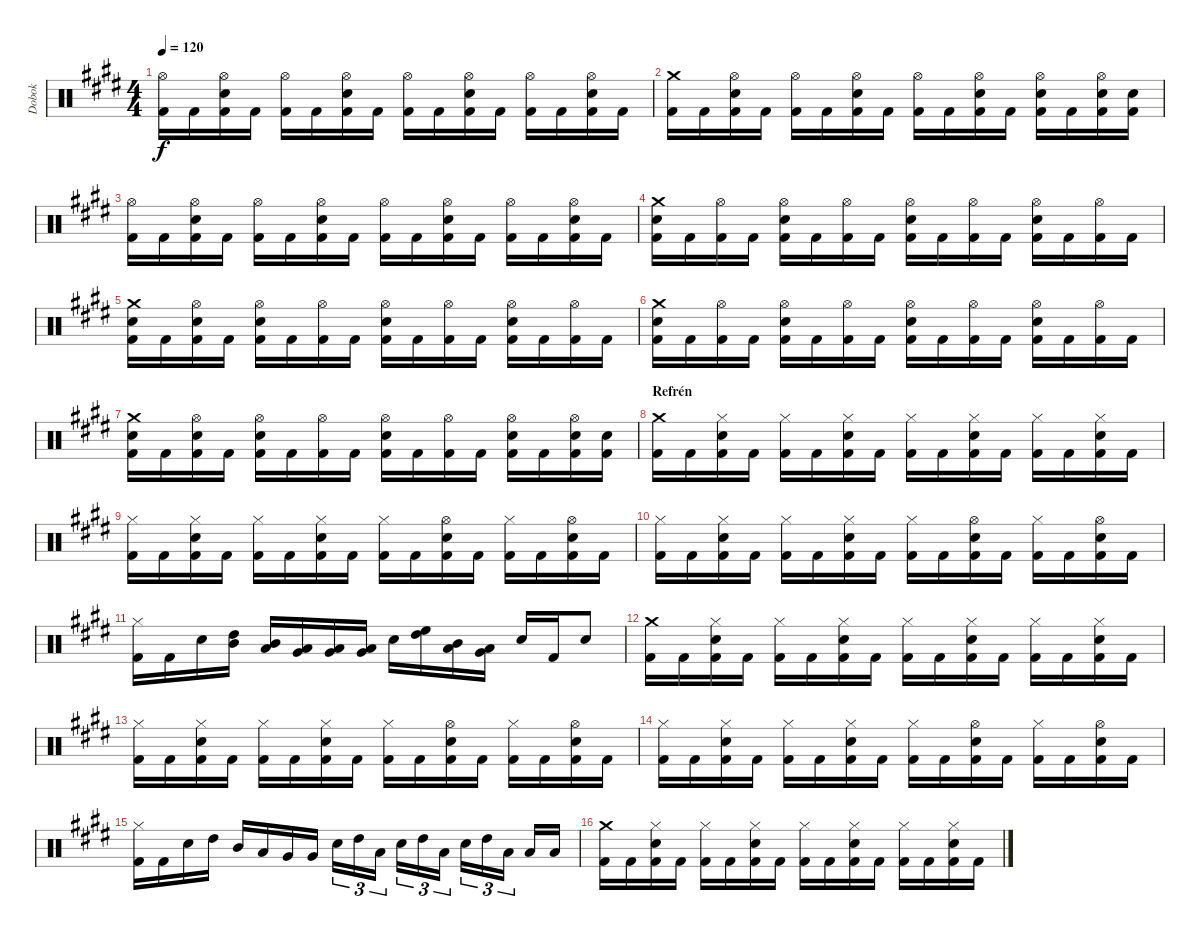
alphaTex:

\track ("Dobok" "Dobok") {instrument percussion}
\staff {score}
\articulation defaults
\ts (4 4)
\tempo 120
\clef neutral
\ks c#minor
("Hi-Hat (open)" "Kick (hit) 2").16{dy f} "Kick (hit) 2".16 ("Hi-Hat (open)" "Snare (hit) 2" "Kick (hit) 2").16 "Kick (hit) 2".16 ("Hi-Hat (open)" "Kick (hit) 2").16 "Kick (hit) 2".16 ("Hi-Hat (open)" "Snare (hit) 2" "Kick (hit) 2").16 "Kick (hit) 2".16 ("Hi-Hat (open)" "Kick (hit) 2").16 "Kick (hit) 2".16 ("Hi-Hat (open)" "Snare (hit) 2" "Kick (hit) 2").16 "Kick (hit) 2".16 ("Hi-Hat (open)" "Kick (hit) 2").16 "Kick (hit) 2".16 ("Hi-Hat (open)" "Snare (hit) 2" "Kick (hit) 2").16 "Kick (hit) 2".16 |
("Crash medium (hit)" "Kick (hit) 2").16 "Kick (hit) 2".16 ("Hi-Hat (open)" "Snare (hit) 2" "Kick (hit) 2").16 "Kick (hit) 2".16 ("Hi-Hat (open)" "Kick (hit) 2").16 "Kick (hit) 2".16 ("Hi-Hat (open)" "Snare (hit) 2" "Kick (hit) 2").16 "Kick (hit) 2".16 ("Hi-Hat (open)" "Kick (hit) 2").16 "Kick (hit) 2".16 ("Hi-Hat (open)" "Snare (hit) 2" "Kick (hit) 2").16 "Kick (hit) 2".16 ("Hi-Hat (open)" "Snare (hit) 2" "Kick (hit) 2").16 "Kick (hit) 2".16 ("Hi-Hat (open)" "Snare (hit) 2" "Kick (hit) 2").16 ("Snare (hit) 2" "Kick (hit) 2").16 |
("Hi-Hat (open)" "Kick (hit) 2").16 "Kick (hit) 2".16 ("Hi-Hat (open)" "Snare (hit) 2" "Kick (hit) 2").16 "Kick (hit) 2".16 ("Hi-Hat (open)" "Kick (hit) 2").16 "Kick (hit) 2".16 ("Hi-Hat (open)" "Snare (hit) 2" "Kick (hit) 2").16 "Kick (hit) 2".16 ("Hi-Hat (open)" "Kick (hit) 2").16 "Kick (hit) 2".16 ("Hi-Hat (open)" "Snare (hit) 2" "Kick (hit) 2").16 "Kick (hit) 2".16 ("Hi-Hat (open)" "Kick (hit) 2").16 "Kick (hit) 2".16 ("Hi-Hat (open)" "Snare (hit) 2" "Kick (hit) 2").16 "Kick (hit) 2".16 |
("Crash medium (hit)" "Snare (hit) 2" "Kick (hit) 2").16 "Kick (hit) 2".16 ("Hi-Hat (open)" "Kick (hit) 2").16 "Kick (hit) 2".16 ("Hi-Hat (open)" "Snare (hit) 2" "Kick (hit) 2").16 "Kick (hit) 2".16 ("Hi-Hat (open)" "Kick (hit) 2").16 "Kick (hit) 2".16 ("Hi-Hat (open)" "Snare (hit) 2" "Kick (hit) 2").16 "Kick (hit) 2".16 ("Hi-Hat (open)" "Kick (hit) 2").16 "Kick (hit) 2".16 ("Hi-Hat (open)" "Snare (hit) 2" "Kick (hit) 2").16 "Kick (hit) 2".16 ("Hi-Hat (open)" "Kick (hit) 2").16 "Kick (hit) 2".16 |
("Crash medium (hit)" "Snare (hit) 2" "Kick (hit) 2").16 "Kick (hit) 2".16 ("Hi-Hat (open)" "Snare (hit) 2" "Kick (hit) 2").16 "Kick (hit) 2".16 ("Hi-Hat (open)" "Snare (hit) 2" "Kick (hit) 2").16 "Kick (hit) 2".16 ("Hi-Hat (open)" "Kick (hit) 2").16 "Kick (hit) 2".16 ("Hi-Hat (open)" "Snare (hit) 2" "Kick (hit) 2").16 "Kick (hit) 2".16 ("Hi-Hat (open)" "Kick (hit) 2").16 "Kick (hit) 2".16 ("Hi-Hat (open)" "Snare (hit) 2" "Kick (hit) 2").16 "Kick (hit) 2".16 ("Hi-Hat (open)" "Kick (hit) 2").16 "Kick (hit) 2".16 |
("Crash medium (hit)" "Snare (hit) 2" "Kick (hit) 2").16 "Kick (hit) 2".16 ("Hi-Hat (open)" "Kick (hit) 2").16 "Kick (hit) 2".16 ("Hi-Hat (open)" "Snare (hit) 2" "Kick (hit) 2").16 "Kick (hit) 2".16 ("Hi-Hat (open)" "Kick (hit) 2").16 "Kick (hit) 2".16 ("Hi-Hat (open)" "Snare (hit) 2" "Kick (hit) 2").16 "Kick (hit) 2".16 ("Hi-Hat (open)" "Kick (hit) 2").16 "Kick (hit) 2".16 ("Hi-Hat (open)" "Snare (hit) 2" "Kick (hit) 2").16 "Kick (hit) 2".16 ("Hi-Hat (open)" "Kick (hit) 2").16 "Kick (hit) 2".16 |
("Crash medium (hit)" "Snare (hit) 2" "Kick (hit) 2").16 "Kick (hit) 2".16 ("Hi-Hat (open)" "Snare (hit) 2" "Kick (hit) 2").16 "Kick (hit) 2".16 ("Hi-Hat (open)" "Snare (hit) 2" "Kick (hit) 2").16 "Kick (hit) 2".16 ("Hi-Hat (open)" "Kick (hit) 2").16 "Kick (hit) 2".16 ("Hi-Hat (open)" "Snare (hit) 2" "Kick (hit) 2").16 "Kick (hit) 2".16 ("Hi-Hat (open)" "Kick (hit) 2").16 "Kick (hit) 2".16 ("Hi-Hat (open)" "Snare (hit) 2" "Kick (hit) 2").16 "Kick (hit) 2".16 ("Hi-Hat (open)" "Snare (hit) 2" "Kick (hit) 2").16 ("Snare (hit) 2" "Kick (hit) 2").16 |
\section ("" "Refrén")
("Crash medium (hit)" "Kick (hit) 2").16 "Kick (hit) 2".16 ("Hi-Hat (closed)" "Snare (hit) 2" "Kick (hit) 2").16 "Kick (hit) 2".16 ("Hi-Hat (closed)" "Kick (hit) 2").16 "Kick (hit) 2".16 ("Hi-Hat (closed)" "Snare (hit) 2" "Kick (hit) 2").16 "Kick (hit) 2".16 ("Hi-Hat (closed)" "Kick (hit) 2").16 "Kick (hit) 2".16 ("Hi-Hat (closed)" "Snare (hit) 2" "Kick (hit) 2").16 "Kick (hit) 2".16 ("Hi-Hat (closed)" "Kick (hit) 2").16 "Kick (hit) 2".16 ("Hi-Hat (closed)" "Snare (hit) 2" "Kick (hit) 2").16 "Kick (hit) 2".16 |
("Hi-Hat (closed)" "Kick (hit) 2").16 "Kick (hit) 2".16 ("Hi-Hat (closed)" "Snare (hit) 2" "Kick (hit) 2").16 "Kick (hit) 2".16 ("Hi-Hat (closed)" "Kick (hit) 2").16 "Kick (hit) 2".16 ("Hi-Hat (closed)" "Snare (hit) 2" "Kick (hit) 2").16 "Kick (hit) 2".16 ("Hi-Hat (closed)" "Kick (hit) 2").16 "Kick (hit) 2".16 ("Hi-Hat (open)" "Snare (hit) 2" "Kick (hit) 2").16 "Kick (hit) 2".16 ("Hi-Hat (closed)" "Kick (hit) 2").16 "Kick (hit) 2".16 ("Hi-Hat (open)" "Snare (hit) 2" "Kick (hit) 2").16 "Kick (hit) 2".16 |
("Hi-Hat (closed)" "Kick (hit) 2").16 "Kick (hit) 2".16 ("Hi-Hat (closed)" "Snare (hit) 2" "Kick (hit) 2").16 "Kick (hit) 2".16 ("Hi-Hat (closed)" "Kick (hit) 2").16 "Kick (hit) 2".16 ("Hi-Hat (closed)" "Snare (hit) 2" "Kick (hit) 2").16 "Kick (hit) 2".16 ("Hi-Hat (closed)" "Kick (hit) 2").16 "Kick (hit) 2".16 ("Hi-Hat (open)" "Snare (hit) 2" "Kick (hit) 2").16 "Kick (hit) 2".16 ("Hi-Hat (closed)" "Kick (hit) 2").16 "Kick (hit) 2".16 ("Hi-Hat (open)" "Snare (hit) 2" "Kick (hit) 2").16 "Kick (hit) 2".16 |
("Hi-Hat (closed)" "Kick (hit) 2").16 "Kick (hit) 2".16 "Snare (hit) 2".16 ("High Tom (hit)" "Mid Tom (hit)").16 ("Mid Tom (hit)" "Low Tom (hit)").16 ("Low Tom (hit)" "Very Low Tom (hit)").16 ("Very Low Tom (hit)" "Low Floor Tom (hit)").16 ("Very Low Tom (hit)" "Low Floor Tom (hit)").16 "Snare (hit) 2".16 ("High Tom (hit)" "High Floor Tom (hit)").16 ("Low Tom (hit)" "Mid Tom (hit)").16 ("Very Low Tom (hit)" "Low Tom (hit)").16 "Snare (hit) 2".16 "Kick (hit) 2".16 "Snare (hit) 2".8 |
("Crash medium (hit)" "Kick (hit) 2").16 "Kick (hit) 2".16 ("Hi-Hat (closed)" "Snare (hit) 2" "Kick (hit) 2").16 "Kick (hit) 2".16 ("Hi-Hat (closed)" "Kick (hit) 2").16 "Kick (hit) 2".16 ("Hi-Hat (closed)" "Snare (hit) 2" "Kick (hit) 2").16 "Kick (hit) 2".16 ("Hi-Hat (closed)" "Kick (hit) 2").16 "Kick (hit) 2".16 ("Hi-Hat (closed)" "Snare (hit) 2" "Kick (hit) 2").16 "Kick (hit) 2".16 ("Hi-Hat (closed)" "Kick (hit) 2").16 "Kick (hit) 2".16 ("Hi-Hat (closed)" "Snare (hit) 2" "Kick (hit) 2").16 "Kick (hit) 2".16 |
("Hi-Hat (closed)" "Kick (hit) 2").16 "Kick (hit) 2".16 ("Hi-Hat (closed)" "Snare (hit) 2" "Kick (hit) 2").16 "Kick (hit) 2".16 ("Hi-Hat (closed)" "Kick (hit) 2").16 "Kick (hit) 2".16 ("Hi-Hat (closed)" "Snare (hit) 2" "Kick (hit) 2").16 "Kick (hit) 2".16 ("Hi-Hat (closed)" "Kick (hit) 2").16 "Kick (hit) 2".16 ("Hi-Hat (open)" "Snare (hit) 2" "Kick (hit) 2").16 "Kick (hit) 2".16 ("Hi-Hat (closed)" "Kick (hit) 2").16 "Kick (hit) 2".16 ("Hi-Hat (open)" "Snare (hit) 2" "Kick (hit) 2").16 "Kick (hit) 2".16 |
("Hi-Hat (closed)" "Kick (hit) 2").16 "Kick (hit) 2".16 ("Hi-Hat (closed)" "Snare (hit) 2" "Kick (hit) 2").16 "Kick (hit) 2".16 ("Hi-Hat (closed)" "Kick (hit) 2").16 "Kick (hit) 2".16 ("Hi-Hat (closed)" "Snare (hit) 2" "Kick (hit) 2").16 "Kick (hit) 2".16 ("Hi-Hat (closed)" "Kick (hit) 2").16 "Kick (hit) 2".16 ("Hi-Hat (open)" "Snare (hit) 2" "Kick (hit) 2").16 "Kick (hit) 2".16 ("Hi-Hat (closed)" "Kick (hit) 2").16 "Kick (hit) 2".16 ("Hi-Hat (open)" "Snare (hit) 2" "Kick (hit) 2").16 "Kick (hit) 2".16 |
("Hi-Hat (closed)" "Kick (hit) 2").16 "Kick (hit) 2".16 "Snare (hit) 2".16 "High Tom (hit)".16 "Mid Tom (hit)".16 "Low Tom (hit)".16 "Very Low Tom (hit)".16 "Very Low Tom (hit)".16 "Snare (hit) 2".16{tu (3 2)} "High Tom (hit)".16{tu (3 2)} "Low Tom (hit)".16{tu (3 2)} "Snare (hit) 2".16{tu (3 2)} "High Tom (hit)".16{tu (3 2)} "Low Tom (hit)".16{tu (3 2)} "Snare (hit) 2".16{tu (3 2)} "High Tom (hit)".16{tu (3 2)} "Low Tom (hit)".16{tu (3 2)} "Low Tom (hit)".16 "Low Tom (hit)".16 |
("Crash medium (hit)" "Kick (hit) 2").16 "Kick (hit) 2".16 ("Hi-Hat (closed)" "Snare (hit) 2" "Kick (hit) 2").16 "Kick (hit) 2".16 ("Hi-Hat (closed)" "Kick (hit) 2").16 "Kick (hit) 2".16 ("Hi-Hat (closed)" "Snare (hit) 2" "Kick (hit) 2").16 "Kick (hit) 2".16 ("Hi-Hat (closed)" "Kick (hit) 2").16 "Kick (hit) 2".16 ("Hi-Hat (closed)" "Snare (hit) 2" "Kick (hit) 2").16 "Kick (hit) 2".16 ("Hi-Hat (closed)" "Kick (hit) 2").16 "Kick (hit) 2".16 ("Hi-Hat (closed)" "Snare (hit) 2" "Kick (hit) 2").16 "Kick (hit) 2".16
